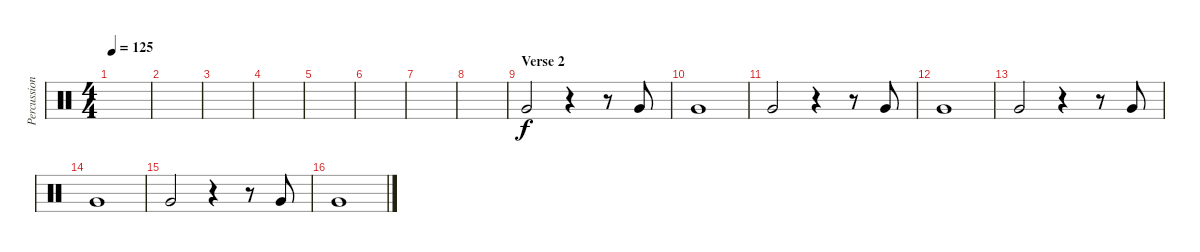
\track ("Percussion" "Percussion") {instrument percussion}
\staff {score}
\articulation defaults
\ts (4 4)
\tempo 125
\clef neutral
\ks c
|
|
|
|
|
|
|
|
\section ("" "Verse 2")
"Very Low Tom (hit)".2 r.4 r.8 "Very Low Tom (hit)".8 |
"Very Low Tom (hit)".1 |
"Very Low Tom (hit)".2 r.4 r.8 "Very Low Tom (hit)".8 |
"Very Low Tom (hit)".1 |
"Very Low Tom (hit)".2 r.4 r.8 "Very Low Tom (hit)".8 |
"Very Low Tom (hit)".1 |
"Very Low Tom (hit)".2 r.4 r.8 "Very Low Tom (hit)".8 |
"Very Low Tom (hit)".1
